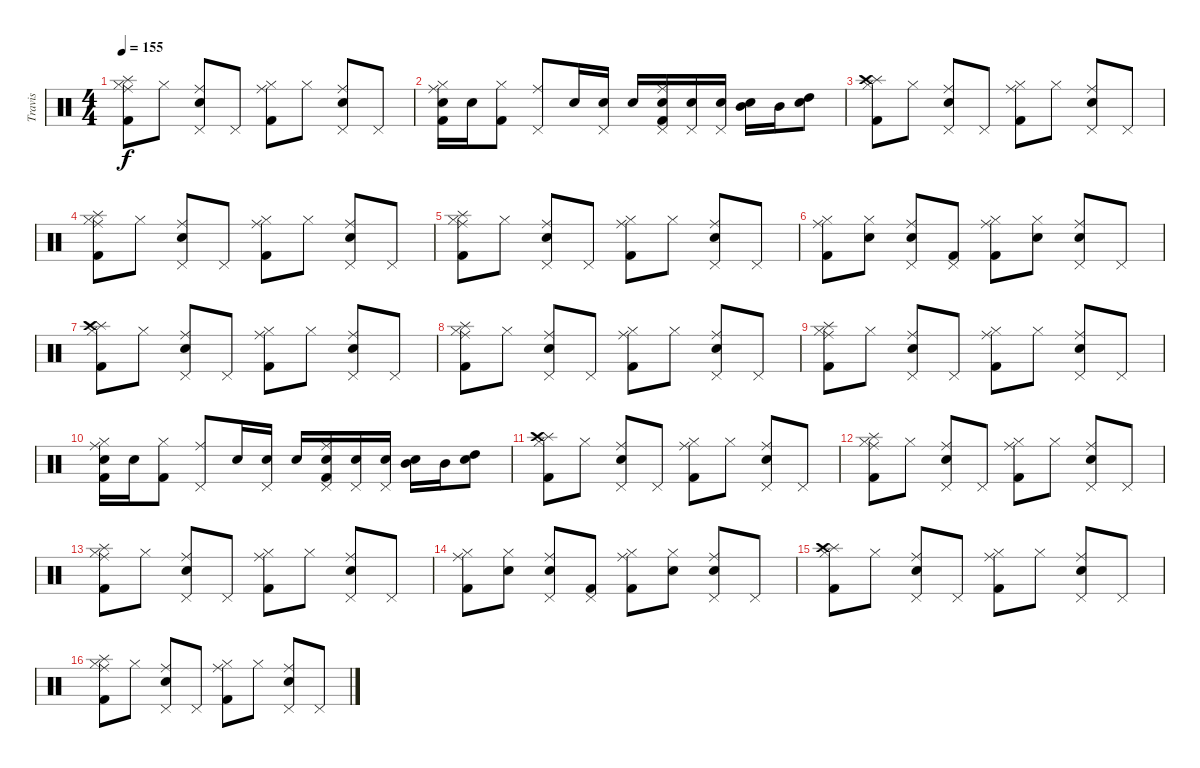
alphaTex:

\track ("Travis" "Travis") {instrument percussion}
\staff {score}
\articulation defaults
\ts (4 4)
\tempo 155
\clef neutral
\ks c
("Splash (hit)" "Hi-Hat (closed)" "Kick (hit) 2" "Ride (middle)").8{dy f} "Hi-Hat (closed)".8 ("Electric Snare (hit)" "Pedal Hi-Hat (hit)" "Ride (middle)").8 "Pedal Hi-Hat (hit)".8 ("Hi-Hat (closed)" "Kick (hit) 2" "Ride (middle)").8 "Hi-Hat (closed)".8 ("Electric Snare (hit)" "Pedal Hi-Hat (hit)" "Ride (middle)").8 "Pedal Hi-Hat (hit)".8 |
("Electric Snare (hit)" "Hi-Hat (closed)" "Kick (hit) 2" "Ride (middle)").16 "Electric Snare (hit)".16 ("Hi-Hat (closed)" "Kick (hit) 2").8 ("Pedal Hi-Hat (hit)" "Ride (middle)").8 "Electric Snare (hit)".16 ("Electric Snare (hit)" "Pedal Hi-Hat (hit)").16 "Electric Snare (hit)".16 ("Electric Snare (hit)" "Pedal Hi-Hat (hit)" "Kick (hit) 2" "Ride (middle)").16 ("Snare (hit) 2" "Pedal Hi-Hat (hit)").16 ("Snare (hit) 2" "Pedal Hi-Hat (hit)").16 ("Electric Snare (hit)" "Mid Tom (hit)").16 "Mid Tom (hit)".16 ("Electric Snare (hit)" "High Tom (hit)").8 |
("Splash (hit)" "Hi-Hat (closed)" "Kick (hit) 2" "Crash high (hit)").8 "Hi-Hat (closed)".8 ("Electric Snare (hit)" "Pedal Hi-Hat (hit)" "Ride (middle)").8 "Pedal Hi-Hat (hit)".8 ("Hi-Hat (closed)" "Kick (hit) 2" "Ride (middle)").8 "Hi-Hat (closed)".8 ("Electric Snare (hit)" "Pedal Hi-Hat (hit)" "Ride (middle)").8 "Pedal Hi-Hat (hit)".8 |
("Splash (hit)" "Hi-Hat (closed)" "Kick (hit) 2" "Ride (middle)").8 "Hi-Hat (closed)".8 ("Electric Snare (hit)" "Pedal Hi-Hat (hit)" "Ride (middle)").8 "Pedal Hi-Hat (hit)".8 ("Hi-Hat (closed)" "Kick (hit) 2" "Ride (middle)").8 "Hi-Hat (closed)".8 ("Electric Snare (hit)" "Pedal Hi-Hat (hit)" "Ride (middle)").8 "Pedal Hi-Hat (hit)".8 |
("Splash (hit)" "Hi-Hat (closed)" "Kick (hit) 2" "Ride (middle)").8 "Hi-Hat (closed)".8 ("Electric Snare (hit)" "Pedal Hi-Hat (hit)" "Ride (middle)").8 "Pedal Hi-Hat (hit)".8 ("Hi-Hat (closed)" "Kick (hit) 2" "Ride (middle)").8 "Hi-Hat (closed)".8 ("Electric Snare (hit)" "Pedal Hi-Hat (hit)" "Ride (middle)").8 "Pedal Hi-Hat (hit)".8 |
("Hi-Hat (closed)" "Kick (hit) 2" "Ride (middle)").8 ("Electric Snare (hit)" "Hi-Hat (closed)").8 ("Electric Snare (hit)" "Pedal Hi-Hat (hit)" "Ride (middle)").8 ("Pedal Hi-Hat (hit)" "Kick (hit) 2").8 ("Hi-Hat (closed)" "Kick (hit) 2" "Ride (middle)").8 ("Electric Snare (hit)" "Hi-Hat (closed)").8 ("Electric Snare (hit)" "Pedal Hi-Hat (hit)" "Ride (middle)").8 "Pedal Hi-Hat (hit)".8 |
("Splash (hit)" "Hi-Hat (closed)" "Kick (hit) 2" "Crash high (hit)").8 "Hi-Hat (closed)".8 ("Electric Snare (hit)" "Pedal Hi-Hat (hit)" "Ride (middle)").8 "Pedal Hi-Hat (hit)".8 ("Hi-Hat (closed)" "Kick (hit) 2" "Ride (middle)").8 "Hi-Hat (closed)".8 ("Electric Snare (hit)" "Pedal Hi-Hat (hit)" "Ride (middle)").8 "Pedal Hi-Hat (hit)".8 |
("Splash (hit)" "Hi-Hat (closed)" "Kick (hit) 2" "Ride (middle)").8 "Hi-Hat (closed)".8 ("Electric Snare (hit)" "Pedal Hi-Hat (hit)" "Ride (middle)").8 "Pedal Hi-Hat (hit)".8 ("Hi-Hat (closed)" "Kick (hit) 2" "Ride (middle)").8 "Hi-Hat (closed)".8 ("Electric Snare (hit)" "Pedal Hi-Hat (hit)" "Ride (middle)").8 "Pedal Hi-Hat (hit)".8 |
("Splash (hit)" "Hi-Hat (closed)" "Kick (hit) 2" "Ride (middle)").8 "Hi-Hat (closed)".8 ("Electric Snare (hit)" "Pedal Hi-Hat (hit)" "Ride (middle)").8 "Pedal Hi-Hat (hit)".8 ("Hi-Hat (closed)" "Kick (hit) 2" "Ride (middle)").8 "Hi-Hat (closed)".8 ("Electric Snare (hit)" "Pedal Hi-Hat (hit)" "Ride (middle)").8 "Pedal Hi-Hat (hit)".8 |
("Electric Snare (hit)" "Hi-Hat (closed)" "Kick (hit) 2" "Ride (middle)").16 "Electric Snare (hit)".16 ("Hi-Hat (closed)" "Kick (hit) 2").8 ("Pedal Hi-Hat (hit)" "Ride (middle)").8 "Electric Snare (hit)".16 ("Electric Snare (hit)" "Pedal Hi-Hat (hit)").16 "Electric Snare (hit)".16 ("Electric Snare (hit)" "Pedal Hi-Hat (hit)" "Kick (hit) 2" "Ride (middle)").16 ("Snare (hit) 2" "Pedal Hi-Hat (hit)").16 ("Snare (hit) 2" "Pedal Hi-Hat (hit)").16 ("Electric Snare (hit)" "Mid Tom (hit)").16 "Mid Tom (hit)".16 ("Electric Snare (hit)" "High Tom (hit)").8 |
("Splash (hit)" "Hi-Hat (closed)" "Kick (hit) 2" "Crash high (hit)").8 "Hi-Hat (closed)".8 ("Electric Snare (hit)" "Pedal Hi-Hat (hit)" "Ride (middle)").8 "Pedal Hi-Hat (hit)".8 ("Hi-Hat (closed)" "Kick (hit) 2" "Ride (middle)").8 "Hi-Hat (closed)".8 ("Electric Snare (hit)" "Pedal Hi-Hat (hit)" "Ride (middle)").8 "Pedal Hi-Hat (hit)".8 |
("Splash (hit)" "Hi-Hat (closed)" "Kick (hit) 2" "Ride (middle)").8 "Hi-Hat (closed)".8 ("Electric Snare (hit)" "Pedal Hi-Hat (hit)" "Ride (middle)").8 "Pedal Hi-Hat (hit)".8 ("Hi-Hat (closed)" "Kick (hit) 2" "Ride (middle)").8 "Hi-Hat (closed)".8 ("Electric Snare (hit)" "Pedal Hi-Hat (hit)" "Ride (middle)").8 "Pedal Hi-Hat (hit)".8 |
("Splash (hit)" "Hi-Hat (closed)" "Kick (hit) 2" "Ride (middle)").8 "Hi-Hat (closed)".8 ("Electric Snare (hit)" "Pedal Hi-Hat (hit)" "Ride (middle)").8 "Pedal Hi-Hat (hit)".8 ("Hi-Hat (closed)" "Kick (hit) 2" "Ride (middle)").8 "Hi-Hat (closed)".8 ("Electric Snare (hit)" "Pedal Hi-Hat (hit)" "Ride (middle)").8 "Pedal Hi-Hat (hit)".8 |
("Hi-Hat (closed)" "Kick (hit) 2" "Ride (middle)").8 ("Electric Snare (hit)" "Hi-Hat (closed)").8 ("Electric Snare (hit)" "Pedal Hi-Hat (hit)" "Ride (middle)").8 ("Pedal Hi-Hat (hit)" "Kick (hit) 2").8 ("Hi-Hat (closed)" "Kick (hit) 2" "Ride (middle)").8 ("Electric Snare (hit)" "Hi-Hat (closed)").8 ("Electric Snare (hit)" "Pedal Hi-Hat (hit)" "Ride (middle)").8 "Pedal Hi-Hat (hit)".8 |
("Splash (hit)" "Hi-Hat (closed)" "Kick (hit) 2" "Crash high (hit)").8 "Hi-Hat (closed)".8 ("Electric Snare (hit)" "Pedal Hi-Hat (hit)" "Ride (middle)").8 "Pedal Hi-Hat (hit)".8 ("Hi-Hat (closed)" "Kick (hit) 2" "Ride (middle)").8 "Hi-Hat (closed)".8 ("Electric Snare (hit)" "Pedal Hi-Hat (hit)" "Ride (middle)").8 "Pedal Hi-Hat (hit)".8 |
("Splash (hit)" "Hi-Hat (closed)" "Kick (hit) 2" "Ride (middle)").8 "Hi-Hat (closed)".8 ("Electric Snare (hit)" "Pedal Hi-Hat (hit)" "Ride (middle)").8 "Pedal Hi-Hat (hit)".8 ("Hi-Hat (closed)" "Kick (hit) 2" "Ride (middle)").8 "Hi-Hat (closed)".8 ("Electric Snare (hit)" "Pedal Hi-Hat (hit)" "Ride (middle)").8 "Pedal Hi-Hat (hit)".8
